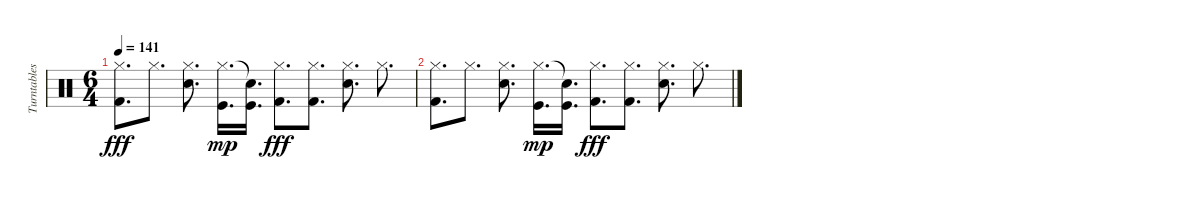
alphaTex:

\track ("Turntables" "Turntables") {instrument percussion}
\staff {score}
\articulation defaults
\ts (6 4)
\tempo 141
\clef neutral
\ks c
("Hi-Hat (closed)" "Kick (hit) 2").8{d dy fff volume 7} "Hi-Hat (closed)".8{d} ("Hi-Hat (closed)" "Electric Snare (hit)").8{d} ("Hi-Hat (closed)" "Kick (hit)").16{d dy mp} ("Snare (hit)"{t} "Kick (hit)").16{d} ("Hi-Hat (closed)" "Kick (hit) 2").8{d dy fff} ("Hi-Hat (closed)" "Kick (hit) 2").8{d} ("Hi-Hat (closed)" "Electric Snare (hit)").8{d} "Hi-Hat (closed)".8{d} |
("Hi-Hat (closed)" "Kick (hit) 2").8{d volume 3} "Hi-Hat (closed)".8{d} ("Hi-Hat (closed)" "Electric Snare (hit)").8{d} ("Hi-Hat (closed)" "Kick (hit)").16{d dy mp} ("Snare (hit)"{t} "Kick (hit)").16{d} ("Hi-Hat (closed)" "Kick (hit) 2").8{d dy fff} ("Hi-Hat (closed)" "Kick (hit) 2").8{d} ("Hi-Hat (closed)" "Electric Snare (hit)").8{d} "Hi-Hat (closed)".8{d}
